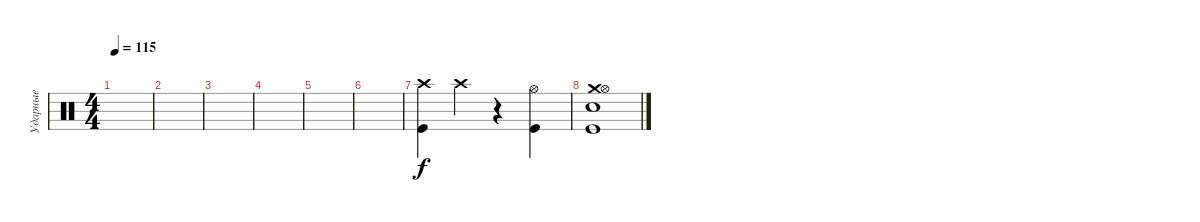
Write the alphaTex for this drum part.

\track ("Ударные" "Ударные") {instrument percussion}
\staff {score}
\articulation defaults
\ts (4 4)
\tempo 115
\clef neutral
\ks c
|
|
|
|
|
|
("Crash high (hit)" "Kick (hit)").4 "Crash high (hit)".4 r.4 ("Hi-Hat (open)" "Kick (hit)").4 |
("Crash medium (hit)" "Hi-Hat (open)" "Snare (hit) 2" "Kick (hit)").1
